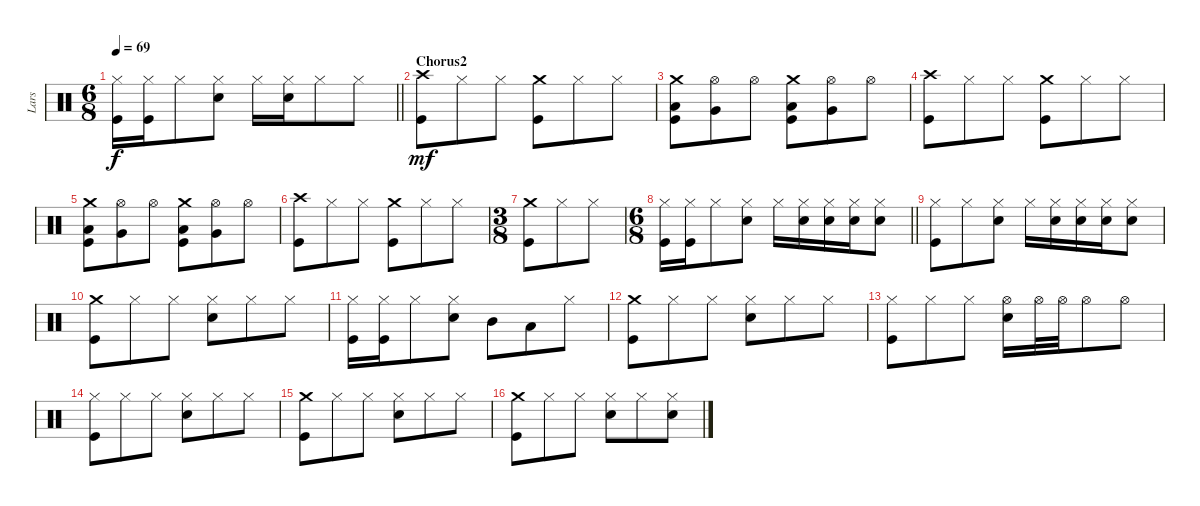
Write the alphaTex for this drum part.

\track ("Lars" "Lars") {instrument percussion}
\staff {score}
\articulation defaults
\ts (6 8)
\tempo 69
\clef neutral
\barLineRight lightlight
\ks c
("Hi-Hat (closed)" "Kick (hit)").16{dy f} ("Hi-Hat (closed)" "Kick (hit)").16 "Hi-Hat (closed)".8 ("Hi-Hat (closed)" "Snare (hit) 2").8 "Hi-Hat (closed)".16 ("Hi-Hat (closed)" "Snare (hit) 2").16 "Hi-Hat (closed)".8 "Hi-Hat (closed)".8 |
\section ("" "Chorus2")
("Crash high (hit)" "Kick (hit)").8{dy mf} "Hi-Hat (closed)".8 "Hi-Hat (closed)".8 ("Crash medium (hit)" "Kick (hit)").8 "Hi-Hat (closed)".8 "Hi-Hat (closed)".8 |
("Crash medium (hit)" "Low Tom (hit)" "Kick (hit)").8 ("Hi-Hat (open)" "Very Low Tom (hit)").8 "Hi-Hat (open)".8 ("Crash medium (hit)" "Low Tom (hit)" "Kick (hit)").8 ("Hi-Hat (open)" "Very Low Tom (hit)").8 "Hi-Hat (open)".8 |
("Crash high (hit)" "Kick (hit)").8 "Hi-Hat (closed)".8 "Hi-Hat (closed)".8 ("Crash medium (hit)" "Kick (hit)").8 "Hi-Hat (closed)".8 "Hi-Hat (closed)".8 |
("Crash medium (hit)" "Low Tom (hit)" "Kick (hit)").8 ("Hi-Hat (open)" "Very Low Tom (hit)").8 "Hi-Hat (open)".8 ("Crash medium (hit)" "Low Tom (hit)" "Kick (hit)").8 ("Hi-Hat (open)" "Very Low Tom (hit)").8 "Hi-Hat (open)".8 |
("Crash high (hit)" "Kick (hit)").8 "Hi-Hat (closed)".8 "Hi-Hat (closed)".8 ("Crash medium (hit)" "Kick (hit)").8 "Hi-Hat (closed)".8 "Hi-Hat (closed)".8 |
\ts (3 8)
("Crash medium (hit)" "Kick (hit)").8 "Hi-Hat (closed)".8 "Hi-Hat (closed)".8 |
\ts (6 8)
\barLineRight lightlight
("Hi-Hat (closed)" "Kick (hit)").16 ("Hi-Hat (closed)" "Kick (hit)").16 "Hi-Hat (closed)".8 ("Hi-Hat (closed)" "Snare (hit) 2").8 "Hi-Hat (closed)".16 ("Hi-Hat (closed)" "Snare (hit) 2").16 ("Hi-Hat (closed)" "Snare (hit) 2").16 ("Hi-Hat (closed)" "Snare (hit) 2").16 ("Hi-Hat (closed)" "Snare (hit) 2").8 |
("Hi-Hat (closed)" "Kick (hit)").8 "Hi-Hat (closed)".8 ("Hi-Hat (closed)" "Snare (hit) 2").8 "Hi-Hat (closed)".16 ("Hi-Hat (closed)" "Snare (hit) 2").16 ("Hi-Hat (closed)" "Snare (hit) 2").16 ("Hi-Hat (closed)" "Snare (hit) 2").16 ("Hi-Hat (closed)" "Snare (hit) 2").8 |
("Crash medium (hit)" "Kick (hit)").8 "Hi-Hat (closed)".8 "Hi-Hat (closed)".8 ("Hi-Hat (closed)" "Snare (hit) 2").8 "Hi-Hat (closed)".8 "Hi-Hat (closed)".8 |
("Hi-Hat (closed)" "Kick (hit)").16 ("Hi-Hat (closed)" "Kick (hit)").16 "Hi-Hat (closed)".8 ("Hi-Hat (closed)" "Snare (hit) 2").8 "Mid Tom (hit)".8 "Low Tom (hit)".8 "Hi-Hat (closed)".8 |
("Crash medium (hit)" "Kick (hit)").8 "Hi-Hat (closed)".8 "Hi-Hat (closed)".8 ("Hi-Hat (closed)" "Snare (hit) 2").8 "Hi-Hat (closed)".8 "Hi-Hat (closed)".8 |
("Hi-Hat (closed)" "Kick (hit)").8 "Hi-Hat (closed)".8 "Hi-Hat (closed)".8 ("Hi-Hat (open)" "Snare (hit) 2").16 "Hi-Hat (open)".32 "Hi-Hat (open)".32 "Hi-Hat (open)".8 "Hi-Hat (open)".8 |
("Hi-Hat (closed)" "Kick (hit)").8 "Hi-Hat (closed)".8 "Hi-Hat (closed)".8 ("Hi-Hat (closed)" "Snare (hit) 2").8 "Hi-Hat (closed)".8 "Hi-Hat (closed)".8 |
("Crash medium (hit)" "Kick (hit)").8 "Hi-Hat (closed)".8 "Hi-Hat (closed)".8 ("Hi-Hat (closed)" "Snare (hit) 2").8 "Hi-Hat (closed)".8 "Hi-Hat (closed)".8 |
("Crash medium (hit)" "Kick (hit)").8 "Hi-Hat (closed)".8 "Hi-Hat (closed)".8 ("Hi-Hat (closed)" "Snare (hit) 2").8 "Hi-Hat (closed)".8 ("Hi-Hat (closed)" "Snare (hit) 2").8
